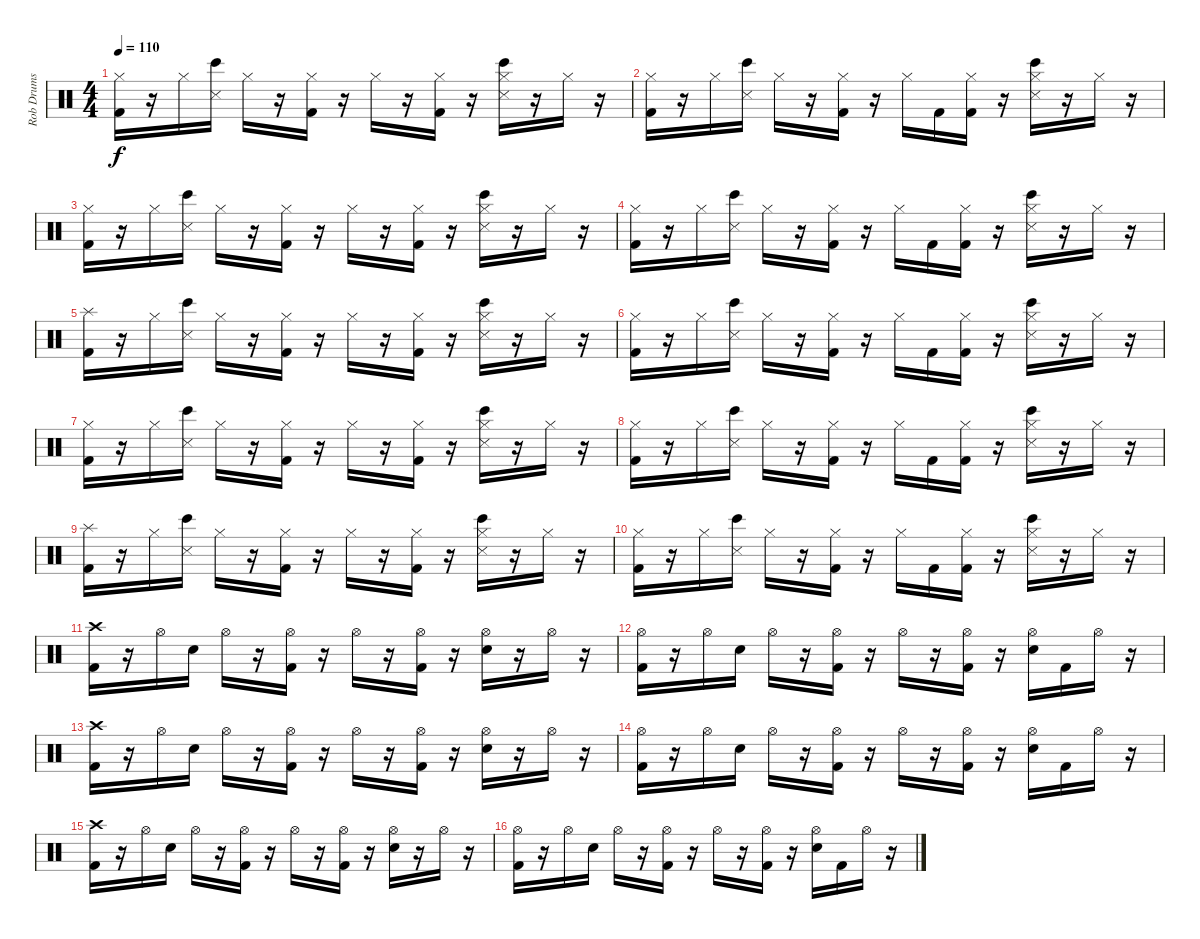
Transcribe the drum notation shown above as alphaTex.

\track ("Rob Drums" "Rob Drums") {instrument percussion}
\staff {score}
\articulation defaults
\ts (4 4)
\tempo 110
\clef neutral
\ks c
("Hi-Hat (closed)" "Kick (hit) 2").16{dy f} r.16 "Hi-Hat (closed)".16 ("Snare (side stick) 3" "Bongo High (hit)").16 "Hi-Hat (closed)".16 r.16 ("Hi-Hat (closed)" "Kick (hit) 2").16 r.16 "Hi-Hat (closed)".16 r.16 ("Hi-Hat (closed)" "Kick (hit) 2").16 r.16 ("Hi-Hat (closed)" "Snare (side stick) 3" "Bongo High (hit)").16 r.16 "Hi-Hat (closed)".16 r.16 |
("Hi-Hat (closed)" "Kick (hit) 2").16 r.16 "Hi-Hat (closed)".16 ("Snare (side stick) 3" "Bongo High (hit)").16 "Hi-Hat (closed)".16 r.16 ("Hi-Hat (closed)" "Kick (hit) 2").16 r.16 "Hi-Hat (closed)".16 "Kick (hit) 2".16 ("Hi-Hat (closed)" "Kick (hit) 2").16 r.16 ("Hi-Hat (closed)" "Snare (side stick) 3" "Bongo High (hit)").16 r.16 "Hi-Hat (closed)".16 r.16 |
("Hi-Hat (closed)" "Kick (hit) 2").16 r.16 "Hi-Hat (closed)".16 ("Snare (side stick) 3" "Bongo High (hit)").16 "Hi-Hat (closed)".16 r.16 ("Hi-Hat (closed)" "Kick (hit) 2").16 r.16 "Hi-Hat (closed)".16 r.16 ("Hi-Hat (closed)" "Kick (hit) 2").16 r.16 ("Hi-Hat (closed)" "Snare (side stick) 3" "Bongo High (hit)").16 r.16 "Hi-Hat (closed)".16 r.16 |
("Hi-Hat (closed)" "Kick (hit) 2").16 r.16 "Hi-Hat (closed)".16 ("Snare (side stick) 3" "Bongo High (hit)").16 "Hi-Hat (closed)".16 r.16 ("Hi-Hat (closed)" "Kick (hit) 2").16 r.16 "Hi-Hat (closed)".16 "Kick (hit) 2".16 ("Hi-Hat (closed)" "Kick (hit) 2").16 r.16 ("Hi-Hat (closed)" "Snare (side stick) 3" "Bongo High (hit)").16 r.16 "Hi-Hat (closed)".16 r.16 |
("Splash (hit)" "Kick (hit) 2").16 r.16 "Hi-Hat (closed)".16 ("Snare (side stick) 3" "Bongo High (hit)").16 "Hi-Hat (closed)".16 r.16 ("Hi-Hat (closed)" "Kick (hit) 2").16 r.16 "Hi-Hat (closed)".16 r.16 ("Hi-Hat (closed)" "Kick (hit) 2").16 r.16 ("Hi-Hat (closed)" "Snare (side stick) 3" "Bongo High (hit)").16 r.16 "Hi-Hat (closed)".16 r.16 |
("Hi-Hat (closed)" "Kick (hit) 2").16 r.16 "Hi-Hat (closed)".16 ("Snare (side stick) 3" "Bongo High (hit)").16 "Hi-Hat (closed)".16 r.16 ("Hi-Hat (closed)" "Kick (hit) 2").16 r.16 "Hi-Hat (closed)".16 "Kick (hit) 2".16 ("Hi-Hat (closed)" "Kick (hit) 2").16 r.16 ("Hi-Hat (closed)" "Snare (side stick) 3" "Bongo High (hit)").16 r.16 "Hi-Hat (closed)".16 r.16 |
("Hi-Hat (closed)" "Kick (hit) 2").16 r.16 "Hi-Hat (closed)".16 ("Snare (side stick) 3" "Bongo High (hit)").16 "Hi-Hat (closed)".16 r.16 ("Hi-Hat (closed)" "Kick (hit) 2").16 r.16 "Hi-Hat (closed)".16 r.16 ("Hi-Hat (closed)" "Kick (hit) 2").16 r.16 ("Hi-Hat (closed)" "Snare (side stick) 3" "Bongo High (hit)").16 r.16 "Hi-Hat (closed)".16 r.16 |
("Hi-Hat (closed)" "Kick (hit) 2").16 r.16 "Hi-Hat (closed)".16 ("Snare (side stick) 3" "Bongo High (hit)").16 "Hi-Hat (closed)".16 r.16 ("Hi-Hat (closed)" "Kick (hit) 2").16 r.16 "Hi-Hat (closed)".16 "Kick (hit) 2".16 ("Hi-Hat (closed)" "Kick (hit) 2").16 r.16 ("Hi-Hat (closed)" "Snare (side stick) 3" "Bongo High (hit)").16 r.16 "Hi-Hat (closed)".16 r.16 |
("Splash (hit)" "Kick (hit) 2").16 r.16 "Hi-Hat (closed)".16 ("Snare (side stick) 3" "Bongo High (hit)").16 "Hi-Hat (closed)".16 r.16 ("Hi-Hat (closed)" "Kick (hit) 2").16 r.16 "Hi-Hat (closed)".16 r.16 ("Hi-Hat (closed)" "Kick (hit) 2").16 r.16 ("Hi-Hat (closed)" "Snare (side stick) 3" "Bongo High (hit)").16 r.16 "Hi-Hat (closed)".16 r.16 |
("Hi-Hat (closed)" "Kick (hit) 2").16 r.16 "Hi-Hat (closed)".16 ("Snare (side stick) 3" "Bongo High (hit)").16 "Hi-Hat (closed)".16 r.16 ("Hi-Hat (closed)" "Kick (hit) 2").16 r.16 "Hi-Hat (closed)".16 "Kick (hit) 2".16 ("Hi-Hat (closed)" "Kick (hit) 2").16 r.16 ("Hi-Hat (closed)" "Snare (side stick) 3" "Bongo High (hit)").16 r.16 "Hi-Hat (closed)".16 r.16 |
("Crash high (hit)" "Kick (hit) 2").16 r.16 "Hi-Hat (open)".16 "Electric Snare (hit)".16 "Hi-Hat (open)".16 r.16 ("Hi-Hat (open)" "Kick (hit) 2").16 r.16 "Hi-Hat (open)".16 r.16 ("Hi-Hat (open)" "Kick (hit) 2").16 r.16 ("Hi-Hat (open)" "Electric Snare (hit)").16 r.16 "Hi-Hat (open)".16 r.16 |
("Hi-Hat (open)" "Kick (hit) 2").16 r.16 "Hi-Hat (open)".16 "Electric Snare (hit)".16 "Hi-Hat (open)".16 r.16 ("Hi-Hat (open)" "Kick (hit) 2").16 r.16 "Hi-Hat (open)".16 r.16 ("Hi-Hat (open)" "Kick (hit) 2").16 r.16 ("Hi-Hat (open)" "Electric Snare (hit)").16 "Kick (hit) 2".16 "Hi-Hat (open)".16 r.16 |
("Crash high (hit)" "Kick (hit) 2").16 r.16 "Hi-Hat (open)".16 "Electric Snare (hit)".16 "Hi-Hat (open)".16 r.16 ("Hi-Hat (open)" "Kick (hit) 2").16 r.16 "Hi-Hat (open)".16 r.16 ("Hi-Hat (open)" "Kick (hit) 2").16 r.16 ("Hi-Hat (open)" "Electric Snare (hit)").16 r.16 "Hi-Hat (open)".16 r.16 |
("Hi-Hat (open)" "Kick (hit) 2").16 r.16 "Hi-Hat (open)".16 "Electric Snare (hit)".16 "Hi-Hat (open)".16 r.16 ("Hi-Hat (open)" "Kick (hit) 2").16 r.16 "Hi-Hat (open)".16 r.16 ("Hi-Hat (open)" "Kick (hit) 2").16 r.16 ("Hi-Hat (open)" "Electric Snare (hit)").16 "Kick (hit) 2".16 "Hi-Hat (open)".16 r.16 |
("Crash high (hit)" "Kick (hit) 2").16 r.16 "Hi-Hat (open)".16 "Electric Snare (hit)".16 "Hi-Hat (open)".16 r.16 ("Hi-Hat (open)" "Kick (hit) 2").16 r.16 "Hi-Hat (open)".16 r.16 ("Hi-Hat (open)" "Kick (hit) 2").16 r.16 ("Hi-Hat (open)" "Electric Snare (hit)").16 r.16 "Hi-Hat (open)".16 r.16 |
("Hi-Hat (open)" "Kick (hit) 2").16 r.16 "Hi-Hat (open)".16 "Electric Snare (hit)".16 "Hi-Hat (open)".16 r.16 ("Hi-Hat (open)" "Kick (hit) 2").16 r.16 "Hi-Hat (open)".16 r.16 ("Hi-Hat (open)" "Kick (hit) 2").16 r.16 ("Hi-Hat (open)" "Electric Snare (hit)").16 "Kick (hit) 2".16 "Hi-Hat (open)".16 r.16
